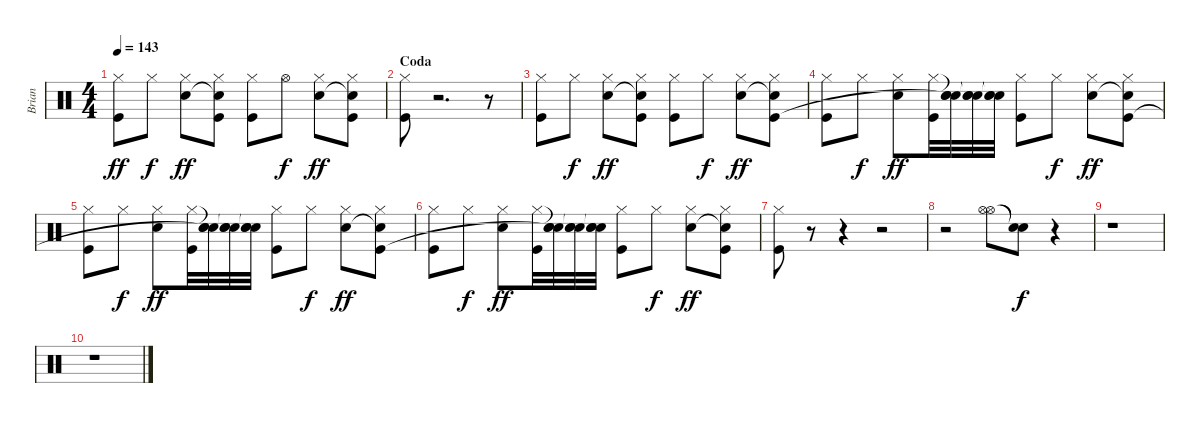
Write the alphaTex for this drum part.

\track ("Brian" "Brian") {instrument percussion}
\staff {score}
\articulation defaults
\ts (4 4)
\tempo 143
\clef neutral
\ks c
("Hi-Hat (closed)" "Kick (hit)").8{dy ff} "Hi-Hat (closed)".8{dy f} ("Hi-Hat (closed)" "Electric Snare (hit)").8{dy ff} ("Hi-Hat (closed)" "Snare (hit)"{t} "Kick (hit)").8 ("Hi-Hat (closed)" "Kick (hit)").8 "Hi-Hat (open)".8{dy f} ("Hi-Hat (closed)" "Electric Snare (hit)").8{dy ff} ("Hi-Hat (closed)" "Snare (hit)"{t} "Kick (hit)").8 |
\section ("" "Coda")
("Hi-Hat (closed)" "Kick (hit)").8 r.2{d} r.8 |
("Hi-Hat (closed)" "Kick (hit)").8 "Hi-Hat (closed)".8{dy f} ("Hi-Hat (closed)" "Electric Snare (hit)").8{dy ff} ("Hi-Hat (closed)" "Snare (hit)"{t} "Kick (hit)").8 ("Hi-Hat (closed)" "Kick (hit)").8 "Hi-Hat (closed)".8{dy f} ("Hi-Hat (closed)" "Electric Snare (hit)").8{dy ff} ("Hi-Hat (closed)" "Snare (hit)"{t} "Kick (hit)").8 |
("Hi-Hat (closed)" "Kick (hit)").8 "Hi-Hat (closed)".8{dy f} ("Hi-Hat (closed)" "Electric Snare (hit)").8{dy ff} ("Hi-Hat (closed)" "Kick (hit)").32 ("Snare (hit)"{t} "Electric Snare (hit)" "Snare (hit)"{t}).32 ("Snare (hit)"{t} "Electric Snare (hit)" "Snare (hit)"{t}).32 ("Snare (hit)"{t} "Electric Snare (hit)" "Snare (hit)"{t}).32 ("Hi-Hat (closed)" "Kick (hit)").8 "Hi-Hat (closed)".8{dy f} ("Hi-Hat (closed)" "Electric Snare (hit)").8{dy ff} ("Hi-Hat (closed)" "Snare (hit)"{t} "Kick (hit)").8 |
("Hi-Hat (closed)" "Kick (hit)").8 "Hi-Hat (closed)".8{dy f} ("Hi-Hat (closed)" "Electric Snare (hit)").8{dy ff} ("Hi-Hat (closed)" "Kick (hit)").32 ("Snare (hit)"{t} "Electric Snare (hit)" "Snare (hit)"{t}).32 ("Snare (hit)"{t} "Electric Snare (hit)" "Snare (hit)"{t}).32 ("Snare (hit)"{t} "Electric Snare (hit)" "Snare (hit)"{t}).32 ("Hi-Hat (closed)" "Kick (hit)").8 "Hi-Hat (closed)".8{dy f} ("Hi-Hat (closed)" "Electric Snare (hit)").8{dy ff} ("Hi-Hat (closed)" "Snare (hit)"{t} "Kick (hit)").8 |
("Hi-Hat (closed)" "Kick (hit)").8 "Hi-Hat (closed)".8{dy f} ("Hi-Hat (closed)" "Electric Snare (hit)").8{dy ff} ("Hi-Hat (closed)" "Kick (hit)").32 ("Snare (hit)"{t} "Electric Snare (hit)" "Snare (hit)"{t}).32 ("Snare (hit)"{t} "Electric Snare (hit)" "Snare (hit)"{t}).32 ("Snare (hit)"{t} "Electric Snare (hit)" "Snare (hit)"{t}).32 ("Hi-Hat (closed)" "Kick (hit)").8 "Hi-Hat (closed)".8{dy f} ("Hi-Hat (closed)" "Electric Snare (hit)").8{dy ff} ("Hi-Hat (closed)" "Snare (hit)"{t} "Kick (hit)").8 |
("Hi-Hat (closed)" "Kick (hit)").8 r.8 r.4 r.2 |
r.2 ("Hi-Hat (open)" "Hi-Hat (open)").8 ("Snare (hit)"{t} "Snare (hit)"{t}).8{dy f} r.4 |
r.1 |
r.1
